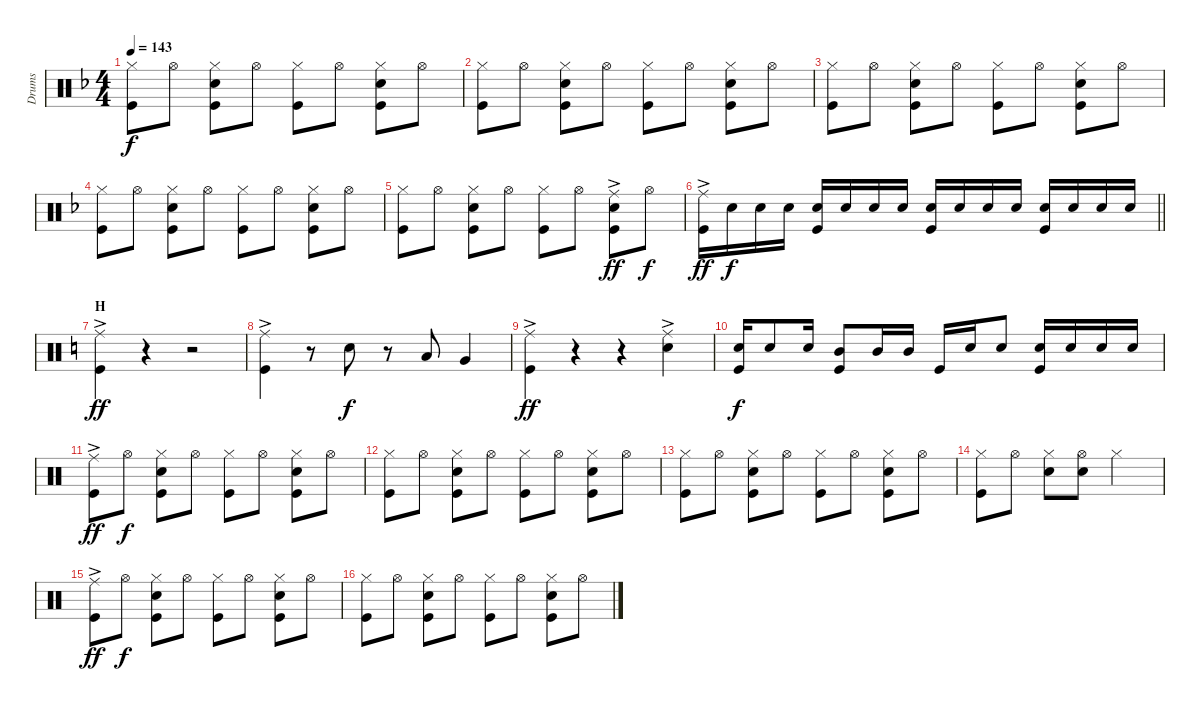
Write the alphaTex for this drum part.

\track ("Drums" "Drums") {instrument percussion}
\staff {score}
\articulation defaults
\ts (4 4)
\tempo 143
\clef neutral
\ks dminor
("Hi-Hat (closed)" "Kick (hit)").8{dy f} "Hi-Hat (open)".8 ("Hi-Hat (closed)" "Kick (hit)" "Snare (hit) 2").8 "Hi-Hat (open)".8 ("Hi-Hat (closed)" "Kick (hit)").8 "Hi-Hat (open)".8 ("Hi-Hat (closed)" "Kick (hit)" "Snare (hit) 2").8 "Hi-Hat (open)".8 |
("Hi-Hat (closed)" "Kick (hit)").8 "Hi-Hat (open)".8 ("Hi-Hat (closed)" "Kick (hit)" "Snare (hit) 2").8 "Hi-Hat (open)".8 ("Hi-Hat (closed)" "Kick (hit)").8 "Hi-Hat (open)".8 ("Hi-Hat (closed)" "Kick (hit)" "Snare (hit) 2").8 "Hi-Hat (open)".8 |
("Hi-Hat (closed)" "Kick (hit)").8 "Hi-Hat (open)".8 ("Hi-Hat (closed)" "Kick (hit)" "Snare (hit) 2").8 "Hi-Hat (open)".8 ("Hi-Hat (closed)" "Kick (hit)").8 "Hi-Hat (open)".8 ("Hi-Hat (closed)" "Kick (hit)" "Snare (hit) 2").8 "Hi-Hat (open)".8 |
("Hi-Hat (closed)" "Kick (hit)").8 "Hi-Hat (open)".8 ("Hi-Hat (closed)" "Kick (hit)" "Snare (hit) 2").8 "Hi-Hat (open)".8 ("Hi-Hat (closed)" "Kick (hit)").8 "Hi-Hat (open)".8 ("Hi-Hat (closed)" "Kick (hit)" "Snare (hit) 2").8 "Hi-Hat (open)".8 |
("Hi-Hat (closed)" "Kick (hit)").8 "Hi-Hat (open)".8 ("Hi-Hat (closed)" "Kick (hit)" "Snare (hit) 2").8 "Hi-Hat (open)".8 ("Hi-Hat (closed)" "Kick (hit)").8 "Hi-Hat (open)".8 ("Ride (middle)"{ac} "Snare (hit) 2" "Kick (hit)").8{dy ff} "Hi-Hat (open)".8{dy f} |
\barLineRight lightlight
("Ride (middle)"{ac} "Kick (hit)").16{dy ff} "Snare (hit) 2".16{dy f} "Snare (hit) 2".16 "Snare (hit) 2".16 ("Snare (hit) 2" "Kick (hit)").16 "Snare (hit) 2".16 "Snare (hit) 2".16 "Snare (hit) 2".16 ("Snare (hit) 2" "Kick (hit)").16 "Snare (hit) 2".16 "Snare (hit) 2".16 "Snare (hit) 2".16 ("Snare (hit) 2" "Kick (hit)").16 "Snare (hit) 2".16 "Snare (hit) 2".16 "Snare (hit) 2".16 |
\section ("" "H")
\ks c
("Ride (middle)"{ac} "Kick (hit)").4{dy ff} r.4 r.2 |
("Ride (middle)"{ac} "Kick (hit)").4 r.8 "Snare (hit) 2".8{dy f} r.8 "Low Tom (hit)".8 "Very Low Tom (hit)".4 |
("Ride (middle)"{ac} "Kick (hit)").4{dy ff} r.4 r.4 ("Ride (middle)"{ac} "Snare (hit) 2").4 |
("Kick (hit)" "Snare (hit) 2").16{dy f} "Snare (hit) 2".8 "Snare (hit) 2".16 ("Mid Tom (hit)" "Kick (hit)").8 "Mid Tom (hit)".16 "Mid Tom (hit)".16 "Kick (hit)".16 "Snare (hit) 2".16 "Snare (hit) 2".8 ("Kick (hit)" "Snare (hit) 2").16 "Snare (hit) 2".16 "Snare (hit) 2".16 "Snare (hit) 2".16 |
\ks aminor
("Ride (middle)"{ac} "Kick (hit)").8{dy ff} "Hi-Hat (open)".8{dy f} ("Hi-Hat (closed)" "Kick (hit)" "Snare (hit) 2").8 "Hi-Hat (open)".8 ("Hi-Hat (closed)" "Kick (hit)").8 "Hi-Hat (open)".8 ("Hi-Hat (closed)" "Kick (hit)" "Snare (hit) 2").8 "Hi-Hat (open)".8 |
("Hi-Hat (closed)" "Kick (hit)").8 "Hi-Hat (open)".8 ("Hi-Hat (closed)" "Kick (hit)" "Snare (hit) 2").8 "Hi-Hat (open)".8 ("Hi-Hat (closed)" "Kick (hit)").8 "Hi-Hat (open)".8 ("Hi-Hat (closed)" "Kick (hit)" "Snare (hit) 2").8 "Hi-Hat (open)".8 |
("Hi-Hat (closed)" "Kick (hit)").8 "Hi-Hat (open)".8 ("Hi-Hat (closed)" "Kick (hit)" "Snare (hit) 2").8 "Hi-Hat (open)".8 ("Hi-Hat (closed)" "Kick (hit)").8 "Hi-Hat (open)".8 ("Hi-Hat (closed)" "Kick (hit)" "Snare (hit) 2").8 "Hi-Hat (open)".8 |
("Hi-Hat (closed)" "Kick (hit)").8 "Hi-Hat (open)".8 ("Hi-Hat (closed)" "Snare (hit) 2").8 ("Snare (hit) 2" "Hi-Hat (open)").8 "Hi-Hat (closed)".2 |
("Ride (middle)"{ac} "Kick (hit)").8{dy ff} "Hi-Hat (open)".8{dy f} ("Hi-Hat (closed)" "Kick (hit)" "Snare (hit) 2").8 "Hi-Hat (open)".8 ("Hi-Hat (closed)" "Kick (hit)").8 "Hi-Hat (open)".8 ("Hi-Hat (closed)" "Kick (hit)" "Snare (hit) 2").8 "Hi-Hat (open)".8 |
("Hi-Hat (closed)" "Kick (hit)").8 "Hi-Hat (open)".8 ("Hi-Hat (closed)" "Kick (hit)" "Snare (hit) 2").8 "Hi-Hat (open)".8 ("Hi-Hat (closed)" "Kick (hit)").8 "Hi-Hat (open)".8 ("Hi-Hat (closed)" "Kick (hit)" "Snare (hit) 2").8 "Hi-Hat (open)".8
